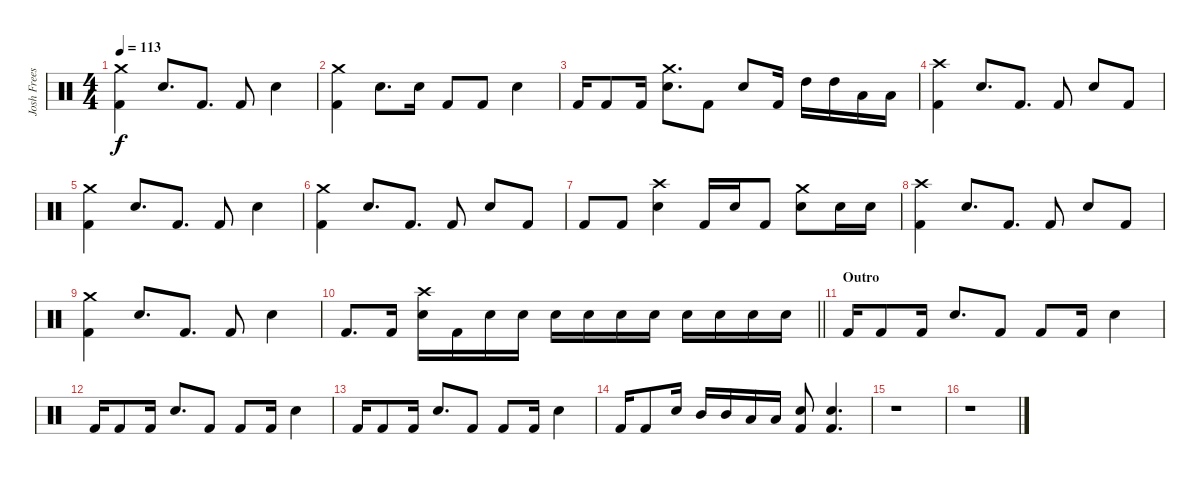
\track ("Josh Freese (Studio Drummer)" "Josh Frees") {instrument percussion}
\staff {score}
\articulation defaults
\ts (4 4)
\tempo 113
\clef neutral
\ks c
("Crash medium (hit)" "Kick (hit) 2").4{dy f} "Electric Snare (hit)".8{d} "Kick (hit) 2".8{d} "Kick (hit) 2".8 "Electric Snare (hit)".4 |
("Crash medium (hit)" "Kick (hit) 2").4 "Electric Snare (hit)".8{d} "Electric Snare (hit)".16 "Kick (hit) 2".8 "Kick (hit) 2".8 "Electric Snare (hit)".4 |
"Kick (hit) 2".16 "Kick (hit) 2".8 "Kick (hit) 2".16 ("Electric Snare (hit)" "Crash medium (hit)").8{d} "Kick (hit) 2".8 "Electric Snare (hit)".8 "Kick (hit) 2".16 "High Tom (hit)".16 "High Tom (hit)".16 "Low Tom (hit)".16 "Low Tom (hit)".16 |
("Crash high (hit)" "Kick (hit) 2").4 "Electric Snare (hit)".8{d} "Kick (hit) 2".8{d} "Kick (hit) 2".8 "Electric Snare (hit)".8 "Kick (hit) 2".8 |
("Crash medium (hit)" "Kick (hit) 2").4 "Electric Snare (hit)".8{d} "Kick (hit) 2".8{d} "Kick (hit) 2".8 "Electric Snare (hit)".4 |
("Crash medium (hit)" "Kick (hit) 2").4 "Electric Snare (hit)".8{d} "Kick (hit) 2".8{d} "Kick (hit) 2".8 "Electric Snare (hit)".8 "Kick (hit) 2".8 |
"Kick (hit) 2".8 "Kick (hit) 2".8 ("Crash high (hit)" "Electric Snare (hit)").4 "Kick (hit) 2".16 "Electric Snare (hit)".16 "Kick (hit) 2".8 ("Crash medium (hit)" "Electric Snare (hit)").8 "Electric Snare (hit)".16 "Electric Snare (hit)".16 |
("Crash high (hit)" "Kick (hit) 2").4 "Electric Snare (hit)".8{d} "Kick (hit) 2".8{d} "Kick (hit) 2".8 "Electric Snare (hit)".8 "Kick (hit) 2".8 |
("Crash medium (hit)" "Kick (hit) 2").4 "Electric Snare (hit)".8{d} "Kick (hit) 2".8{d} "Kick (hit) 2".8 "Electric Snare (hit)".4 |
\barLineRight lightlight "Kick (hit) 2".8{d} "Kick (hit) 2".16
("Crash high (hit)" "Electric Snare (hit)").16 "Kick (hit) 2".16 "Electric Snare (hit)".16 "Electric Snare (hit)".16 "Electric Snare (hit)".16 "Electric Snare (hit)".16 "Electric Snare (hit)".16 "Electric Snare (hit)".16 "Electric Snare (hit)".16 "Electric Snare (hit)".16 "Electric Snare (hit)".16 "Electric Snare (hit)".16 |
\section ("" "Outro")
"Kick (hit) 2".16 "Kick (hit) 2".8 "Kick (hit) 2".16 "Electric Snare (hit)".8{d} "Kick (hit) 2".8 "Kick (hit) 2".8 "Kick (hit) 2".16 "Electric Snare (hit)".4 |
"Kick (hit) 2".16 "Kick (hit) 2".8 "Kick (hit) 2".16 "Electric Snare (hit)".8{d} "Kick (hit) 2".8 "Kick (hit) 2".8 "Kick (hit) 2".16 "Electric Snare (hit)".4 |
"Kick (hit) 2".16 "Kick (hit) 2".8 "Kick (hit) 2".16 "Electric Snare (hit)".8{d} "Kick (hit) 2".8 "Kick (hit) 2".8 "Kick (hit) 2".16 "Electric Snare (hit)".4 |
"Kick (hit) 2".16 "Kick (hit) 2".8 "Electric Snare (hit)".16 "Mid Tom (hit)".16 "Mid Tom (hit)".16 "Low Tom (hit)".16 "Low Tom (hit)".16 ("Electric Snare (hit)" "Kick (hit) 2").8 ("Electric Snare (hit)" "Kick (hit) 2").4{d} |
r.1 |
r.1
